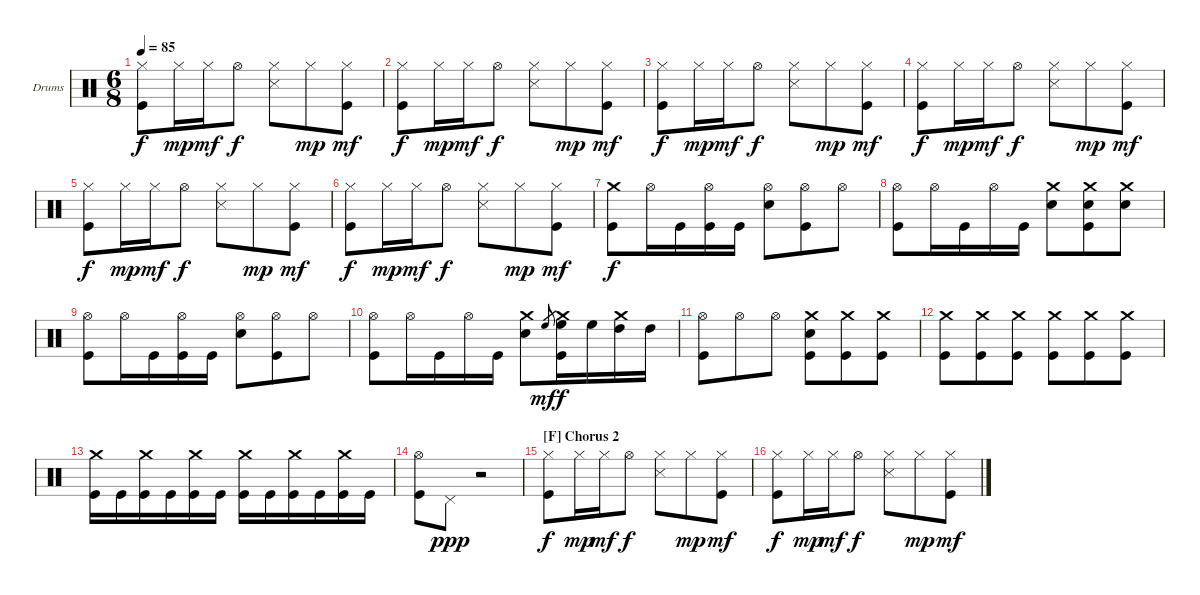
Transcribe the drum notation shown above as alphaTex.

\defaultSystemsLayout 4
\bracketExtendMode groupsimilarinstruments
\firstSystemTrackNameOrientation horizontal
\otherSystemsTrackNameOrientation horizontal
\track ("Drums" "Drums") {instrument percussion}
\staff {score}
\articulation defaults
\ts (6 8)
\tempo 85
\clef neutral
\ks c
("Hi-Hat (closed)" "Kick (hit)").8{dy f} "Hi-Hat (closed)".16{dy mp} "Hi-Hat (closed)".16{dy mf} "Hi-Hat (open)".8{dy f} ("Hi-Hat (closed)" "Snare (side stick) 3").8 "Hi-Hat (closed)".8{dy mp} ("Hi-Hat (closed)" "Kick (hit)").8{dy mf} |
("Hi-Hat (closed)" "Kick (hit)").8{dy f} "Hi-Hat (closed)".16{dy mp} "Hi-Hat (closed)".16{dy mf} "Hi-Hat (open)".8{dy f} ("Hi-Hat (closed)" "Snare (side stick) 3").8 "Hi-Hat (closed)".8{dy mp} ("Hi-Hat (closed)" "Kick (hit)").8{dy mf} |
("Hi-Hat (closed)" "Kick (hit)").8{dy f} "Hi-Hat (closed)".16{dy mp} "Hi-Hat (closed)".16{dy mf} "Hi-Hat (open)".8{dy f} ("Hi-Hat (closed)" "Snare (side stick) 3").8 "Hi-Hat (closed)".8{dy mp} ("Hi-Hat (closed)" "Kick (hit)").8{dy mf} |
("Hi-Hat (closed)" "Kick (hit)").8{dy f} "Hi-Hat (closed)".16{dy mp} "Hi-Hat (closed)".16{dy mf} "Hi-Hat (open)".8{dy f} ("Hi-Hat (closed)" "Snare (side stick) 3").8 "Hi-Hat (closed)".8{dy mp} ("Hi-Hat (closed)" "Kick (hit)").8{dy mf} |
("Hi-Hat (closed)" "Kick (hit)").8{dy f} "Hi-Hat (closed)".16{dy mp} "Hi-Hat (closed)".16{dy mf} "Hi-Hat (open)".8{dy f} ("Hi-Hat (closed)" "Snare (side stick) 3").8 "Hi-Hat (closed)".8{dy mp} ("Hi-Hat (closed)" "Kick (hit)").8{dy mf} |
("Hi-Hat (closed)" "Kick (hit)").8{dy f} "Hi-Hat (closed)".16{dy mp} "Hi-Hat (closed)".16{dy mf} "Hi-Hat (open)".8{dy f} ("Hi-Hat (closed)" "Snare (side stick) 3").8 "Hi-Hat (closed)".8{dy mp} ("Hi-Hat (closed)" "Kick (hit)").8{dy mf} |
("Crash medium (hit)" "Kick (hit)").8{dy f} "Hi-Hat (open)".16 "Kick (hit)".16 ("Hi-Hat (open)" "Kick (hit)").16 "Kick (hit)".16 ("Hi-Hat (open)" "Snare (hit) 2").8 ("Hi-Hat (open)" "Kick (hit)").8 "Hi-Hat (open)".8 |
("Hi-Hat (open)" "Kick (hit)").8 "Hi-Hat (open)".16 "Kick (hit)".16 "Hi-Hat (open)".16 "Kick (hit)".16 ("Crash medium (hit)" "Snare (hit) 2").8 ("Crash medium (hit)" "Snare (hit) 2" "Kick (hit)").8 ("Crash medium (hit)" "Snare (hit) 2").8 |
("Hi-Hat (open)" "Kick (hit)").8 "Hi-Hat (open)".16 "Kick (hit)".16 ("Hi-Hat (open)" "Kick (hit)").16 "Kick (hit)".16 ("Hi-Hat (open)" "Snare (hit) 2").8 ("Hi-Hat (open)" "Kick (hit)").8 "Hi-Hat (open)".8 |
("Hi-Hat (open)" "Kick (hit)").8 "Hi-Hat (open)".16 "Kick (hit)".16 "Hi-Hat (open)".16 "Kick (hit)".16 ("Crash medium (hit)" "Snare (hit) 2").8 "High Floor Tom (hit)".8{gr dy mf} ("Crash medium (hit)" "High Floor Tom (hit)" "Kick (hit)").16{dy f} "High Floor Tom (hit)".16 ("Crash medium (hit)" "High Tom (hit)").16 "High Tom (hit)".16 |
("Hi-Hat (open)" "Kick (hit)").8 "Hi-Hat (open)".8 "Hi-Hat (open)".8 ("Crash medium (hit)" "Snare (hit) 2" "Kick (hit)").8 ("Crash medium (hit)" "Kick (hit)").8 ("Crash medium (hit)" "Kick (hit)").8 |
("Crash medium (hit)" "Kick (hit)").8 ("Crash medium (hit)" "Kick (hit)").8 ("Crash medium (hit)" "Kick (hit)").8 ("Crash medium (hit)" "Kick (hit)").8 ("Crash medium (hit)" "Kick (hit)").8 ("Crash medium (hit)" "Kick (hit)").8 |
("Crash medium (hit)" "Kick (hit)").16 "Kick (hit)".16 ("Crash medium (hit)" "Kick (hit)").16 "Kick (hit)".16 ("Crash medium (hit)" "Kick (hit)").16 "Kick (hit)".16 ("Crash medium (hit)" "Kick (hit)").16 "Kick (hit)".16 ("Crash medium (hit)" "Kick (hit)").16 "Kick (hit)".16 ("Crash medium (hit)" "Kick (hit)").16 "Kick (hit)".16 |
("Hi-Hat (open)" "Kick (hit)").8 "Pedal Hi-Hat (hit)".8{dy ppp} r.2 |
\section ("F" "Chorus 2")
("Hi-Hat (closed)" "Kick (hit)").8{dy f} "Hi-Hat (closed)".16{dy mp} "Hi-Hat (closed)".16{dy mf} "Hi-Hat (open)".8{dy f} ("Hi-Hat (closed)" "Snare (side stick) 3").8 "Hi-Hat (closed)".8{dy mp} ("Hi-Hat (closed)" "Kick (hit)").8{dy mf} |
("Hi-Hat (closed)" "Kick (hit)").8{dy f} "Hi-Hat (closed)".16{dy mp} "Hi-Hat (closed)".16{dy mf} "Hi-Hat (open)".8{dy f} ("Hi-Hat (closed)" "Snare (side stick) 3").8 "Hi-Hat (closed)".8{dy mp} ("Hi-Hat (closed)" "Kick (hit)").8{dy mf}
